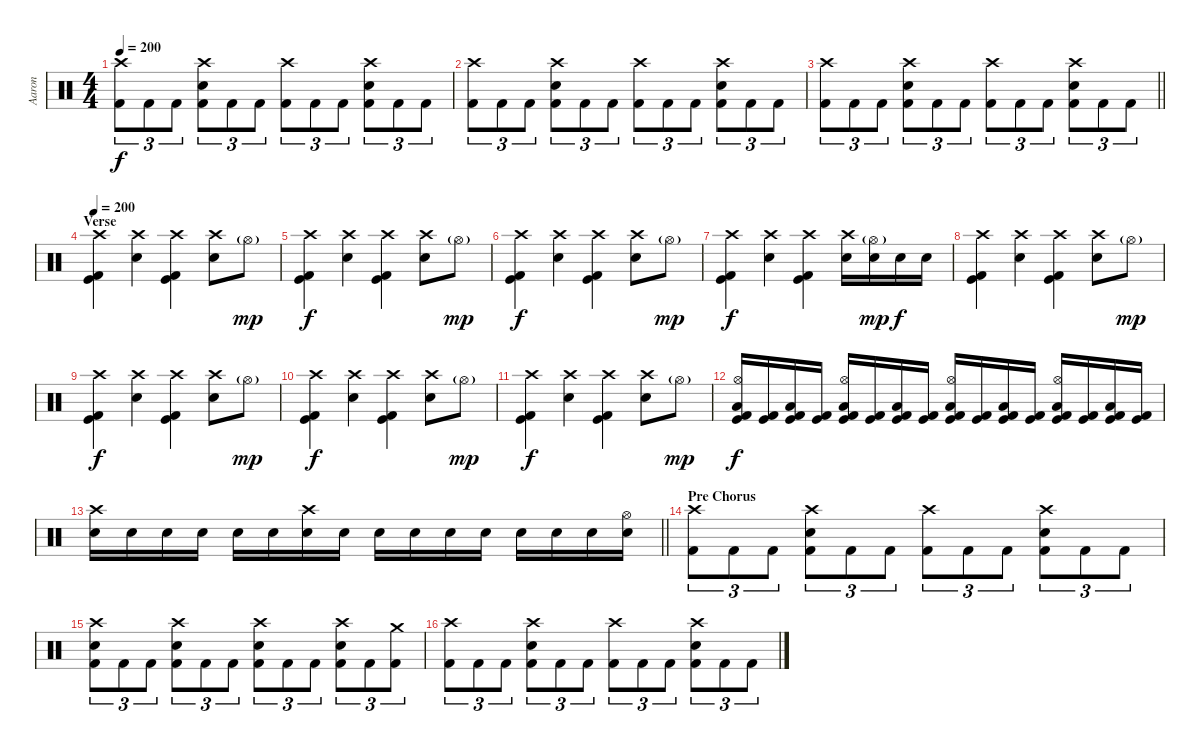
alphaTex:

\track ("Aaron" "Aaron") {instrument percussion}
\staff {score}
\articulation defaults
\ts (4 4)
\tempo 200
\clef neutral
\ks c
("Crash high (hit)" "Kick (hit) 2").8{tu (3 2) dy f} "Kick (hit) 2".8{tu (3 2)} "Kick (hit) 2".8{tu (3 2)} ("Crash high (hit)" "Snare (hit) 2" "Kick (hit) 2").8{tu (3 2)} "Kick (hit) 2".8{tu (3 2)} "Kick (hit) 2".8{tu (3 2)} ("Crash high (hit)" "Kick (hit) 2").8{tu (3 2)} "Kick (hit) 2".8{tu (3 2)} "Kick (hit) 2".8{tu (3 2)} ("Crash high (hit)" "Snare (hit) 2" "Kick (hit) 2").8{tu (3 2)} "Kick (hit) 2".8{tu (3 2)} "Kick (hit) 2".8{tu (3 2)} |
("Crash high (hit)" "Kick (hit) 2").8{tu (3 2)} "Kick (hit) 2".8{tu (3 2)} "Kick (hit) 2".8{tu (3 2)} ("Crash high (hit)" "Snare (hit) 2" "Kick (hit) 2").8{tu (3 2)} "Kick (hit) 2".8{tu (3 2)} "Kick (hit) 2".8{tu (3 2)} ("Crash high (hit)" "Kick (hit) 2").8{tu (3 2)} "Kick (hit) 2".8{tu (3 2)} "Kick (hit) 2".8{tu (3 2)} ("Crash high (hit)" "Snare (hit) 2" "Kick (hit) 2").8{tu (3 2)} "Kick (hit) 2".8{tu (3 2)} "Kick (hit) 2".8{tu (3 2)} |
\barLineRight lightlight
("Crash high (hit)" "Kick (hit) 2").8{tu (3 2)} "Kick (hit) 2".8{tu (3 2)} "Kick (hit) 2".8{tu (3 2)} ("Crash high (hit)" "Snare (hit) 2" "Kick (hit) 2").8{tu (3 2)} "Kick (hit) 2".8{tu (3 2)} "Kick (hit) 2".8{tu (3 2)} ("Crash high (hit)" "Kick (hit) 2").8{tu (3 2)} "Kick (hit) 2".8{tu (3 2)} "Kick (hit) 2".8{tu (3 2)} ("Crash high (hit)" "Snare (hit) 2" "Kick (hit) 2").8{tu (3 2)} "Kick (hit) 2".8{tu (3 2)} "Kick (hit) 2".8{tu (3 2)} |
\section ("" "Verse")
\tempo 200
("Crash high (hit)" "Kick (hit)" "Kick (hit) 2").4 ("Crash high (hit)" "Snare (hit) 2").4 ("Crash high (hit)" "Kick (hit)" "Kick (hit) 2").4 ("Crash high (hit)" "Snare (hit) 2").8 "Hi-Hat (open)"{g}.8{dy mp} |
("Crash high (hit)" "Kick (hit)" "Kick (hit) 2").4{dy f} ("Crash high (hit)" "Snare (hit) 2").4 ("Crash high (hit)" "Kick (hit)" "Kick (hit) 2").4 ("Crash high (hit)" "Snare (hit) 2").8 "Hi-Hat (open)"{g}.8{dy mp} |
("Crash high (hit)" "Kick (hit)" "Kick (hit) 2").4{dy f} ("Crash high (hit)" "Snare (hit) 2").4 ("Crash high (hit)" "Kick (hit)" "Kick (hit) 2").4 ("Crash high (hit)" "Snare (hit) 2").8 "Hi-Hat (open)"{g}.8{dy mp} |
("Crash high (hit)" "Kick (hit)" "Kick (hit) 2").4{dy f} ("Crash high (hit)" "Snare (hit) 2").4 ("Crash high (hit)" "Kick (hit)" "Kick (hit) 2").4 ("Crash high (hit)" "Snare (hit) 2").16 ("Hi-Hat (open)"{g} "Snare (hit) 2").16{dy mp} "Snare (hit) 2".16{dy f} "Snare (hit) 2".16 |
("Crash high (hit)" "Kick (hit)" "Kick (hit) 2").4 ("Crash high (hit)" "Snare (hit) 2").4 ("Crash high (hit)" "Kick (hit)" "Kick (hit) 2").4 ("Crash high (hit)" "Snare (hit) 2").8 "Hi-Hat (open)"{g}.8{dy mp} |
("Crash high (hit)" "Kick (hit)" "Kick (hit) 2").4{dy f} ("Crash high (hit)" "Snare (hit) 2").4 ("Crash high (hit)" "Kick (hit)" "Kick (hit) 2").4 ("Crash high (hit)" "Snare (hit) 2").8 "Hi-Hat (open)"{g}.8{dy mp} |
("Crash high (hit)" "Kick (hit)" "Kick (hit) 2").4{dy f} ("Crash high (hit)" "Snare (hit) 2").4 ("Crash high (hit)" "Kick (hit)" "Kick (hit) 2").4 ("Crash high (hit)" "Snare (hit) 2").8 "Hi-Hat (open)"{g}.8{dy mp} |
("Crash high (hit)" "Kick (hit)" "Kick (hit) 2").4{dy f} ("Crash high (hit)" "Snare (hit) 2").4 ("Crash high (hit)" "Kick (hit)" "Kick (hit) 2").4 ("Crash high (hit)" "Snare (hit) 2").8 "Hi-Hat (open)"{g}.8{dy mp} |
("Hi-Hat (open)" "Low Floor Tom (hit)" "Kick (hit) 2" "Kick (hit)").16{dy f} ("Kick (hit) 2" "Kick (hit)").16 ("Low Floor Tom (hit)" "Kick (hit) 2" "Kick (hit)").16 ("Kick (hit) 2" "Kick (hit)").16 ("Hi-Hat (open)" "Low Floor Tom (hit)" "Kick (hit) 2" "Kick (hit)").16 ("Kick (hit) 2" "Kick (hit)").16 ("Low Floor Tom (hit)" "Kick (hit) 2" "Kick (hit)").16 ("Kick (hit) 2" "Kick (hit)").16 ("Hi-Hat (open)" "Low Floor Tom (hit)" "Kick (hit) 2" "Kick (hit)").16 ("Kick (hit) 2" "Kick (hit)").16 ("Low Floor Tom (hit)" "Kick (hit) 2" "Kick (hit)").16 ("Kick (hit) 2" "Kick (hit)").16 ("Hi-Hat (open)" "Low Floor Tom (hit)" "Kick (hit) 2" "Kick (hit)").16 ("Kick (hit) 2" "Kick (hit)").16 ("Low Floor Tom (hit)" "Kick (hit) 2" "Kick (hit)").16 ("Kick (hit) 2" "Kick (hit)").16 |
\barLineRight lightlight
("Crash high (hit)" "Snare (hit) 2").16 "Snare (hit) 2".16 "Snare (hit) 2".16 "Snare (hit) 2".16 "Snare (hit) 2".16 "Snare (hit) 2".16 ("Crash high (hit)" "Snare (hit) 2").16 "Snare (hit) 2".16 "Snare (hit) 2".16 "Snare (hit) 2".16 "Snare (hit) 2".16 "Snare (hit) 2".16 "Snare (hit) 2".16 "Snare (hit) 2".16 "Snare (hit) 2".16 ("Hi-Hat (open)" "Snare (hit) 2").16 |
\section ("" "Pre Chorus")
("Crash high (hit)" "Kick (hit) 2").8{tu (3 2)} "Kick (hit) 2".8{tu (3 2)} "Kick (hit) 2".8{tu (3 2)} ("Crash high (hit)" "Snare (hit) 2" "Kick (hit) 2").8{tu (3 2)} "Kick (hit) 2".8{tu (3 2)} "Kick (hit) 2".8{tu (3 2)} ("Crash high (hit)" "Kick (hit) 2").8{tu (3 2)} "Kick (hit) 2".8{tu (3 2)} "Kick (hit) 2".8{tu (3 2)} ("Crash high (hit)" "Snare (hit) 2" "Kick (hit) 2").8{tu (3 2)} "Kick (hit) 2".8{tu (3 2)} "Kick (hit) 2".8{tu (3 2)} |
("Crash high (hit)" "Snare (hit) 2" "Kick (hit) 2").8{tu (3 2)} "Kick (hit) 2".8{tu (3 2)} "Kick (hit) 2".8{tu (3 2)} ("Crash high (hit)" "Snare (hit) 2" "Kick (hit) 2").8{tu (3 2)} "Kick (hit) 2".8{tu (3 2)} "Kick (hit) 2".8{tu (3 2)} ("Crash high (hit)" "Snare (hit) 2" "Kick (hit) 2").8{tu (3 2)} "Kick (hit) 2".8{tu (3 2)} "Kick (hit) 2".8{tu (3 2)} ("Crash high (hit)" "Snare (hit) 2" "Kick (hit) 2").8{tu (3 2)} "Kick (hit) 2".8{tu (3 2)} ("Crash medium (hit)" "Kick (hit) 2").8{tu (3 2)} |
("Crash high (hit)" "Kick (hit) 2").8{tu (3 2)} "Kick (hit) 2".8{tu (3 2)} "Kick (hit) 2".8{tu (3 2)} ("Crash high (hit)" "Snare (hit) 2" "Kick (hit) 2").8{tu (3 2)} "Kick (hit) 2".8{tu (3 2)} "Kick (hit) 2".8{tu (3 2)} ("Crash high (hit)" "Kick (hit) 2").8{tu (3 2)} "Kick (hit) 2".8{tu (3 2)} "Kick (hit) 2".8{tu (3 2)} ("Crash high (hit)" "Snare (hit) 2" "Kick (hit) 2").8{tu (3 2)} "Kick (hit) 2".8{tu (3 2)} "Kick (hit) 2".8{tu (3 2)}
